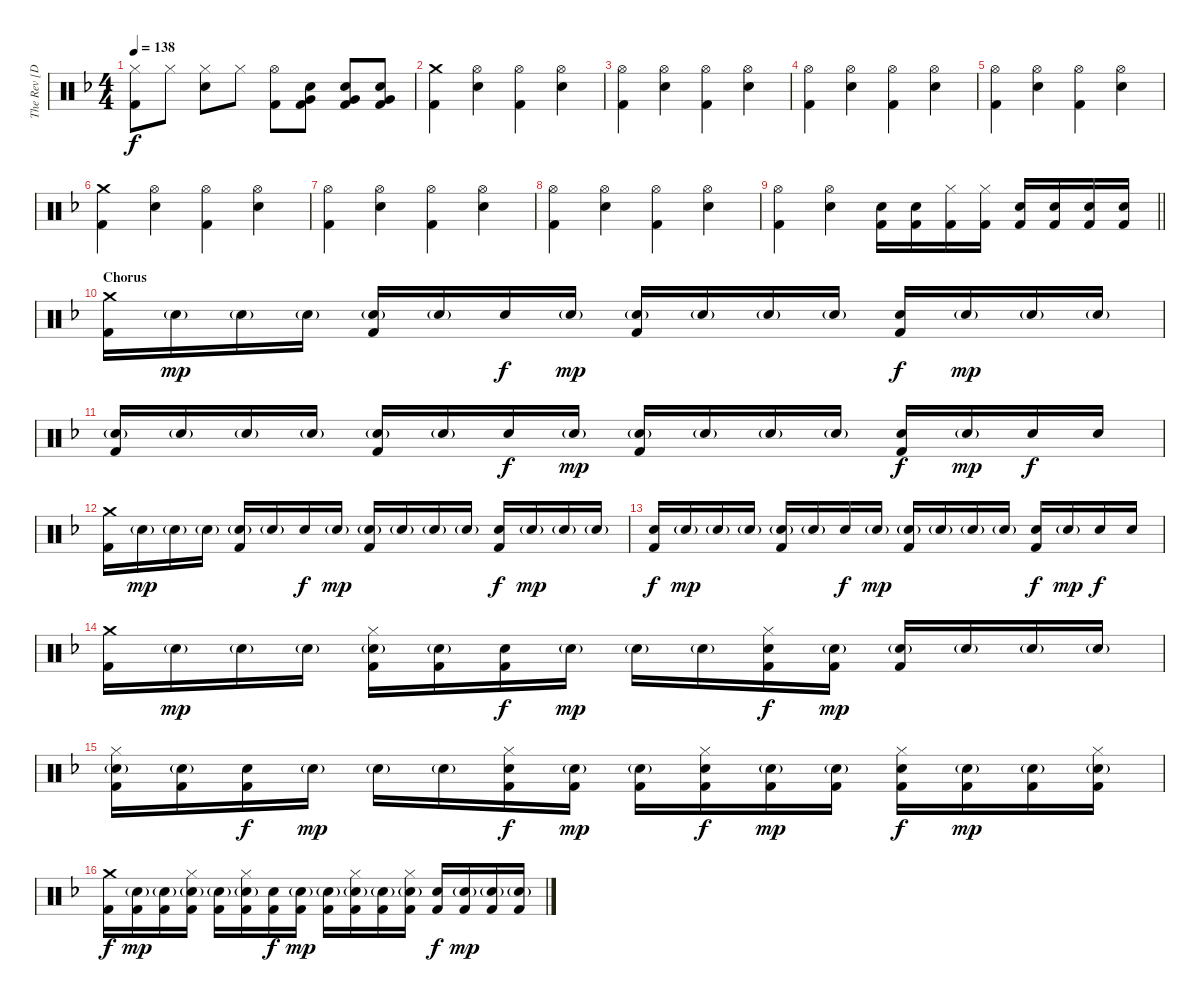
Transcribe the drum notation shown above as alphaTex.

\track ("The Rev [Drum]" "The Rev [D") {instrument percussion}
\staff {score}
\articulation defaults
\ts (4 4)
\tempo 138
\clef neutral
\ks f
("Hi-Hat (closed)" "Kick (hit) 2").8{dy f} "Hi-Hat (closed)".8 ("Hi-Hat (closed)" "Electric Snare (hit)").8 "Hi-Hat (closed)".8 ("Hi-Hat (open)" "Kick (hit) 2").8 ("Very Low Tom (hit)" "Electric Snare (hit)" "Kick (hit) 2").8 ("Very Low Tom (hit)" "Electric Snare (hit)" "Kick (hit) 2").8 ("Very Low Tom (hit)" "Electric Snare (hit)" "Kick (hit) 2").8 |
("Crash medium (hit)" "Kick (hit) 2").4 ("Hi-Hat (open)" "Electric Snare (hit)").4 ("Hi-Hat (open)" "Kick (hit) 2").4 ("Hi-Hat (open)" "Electric Snare (hit)").4 |
("Hi-Hat (open)" "Kick (hit) 2").4 ("Hi-Hat (open)" "Electric Snare (hit)").4 ("Hi-Hat (open)" "Kick (hit) 2").4 ("Hi-Hat (open)" "Electric Snare (hit)").4 |
("Hi-Hat (open)" "Kick (hit) 2").4 ("Hi-Hat (open)" "Electric Snare (hit)").4 ("Hi-Hat (open)" "Kick (hit) 2").4 ("Hi-Hat (open)" "Electric Snare (hit)").4 |
("Hi-Hat (open)" "Kick (hit) 2").4 ("Hi-Hat (open)" "Electric Snare (hit)").4 ("Hi-Hat (open)" "Kick (hit) 2").4 ("Hi-Hat (open)" "Electric Snare (hit)").4 |
("Crash medium (hit)" "Kick (hit) 2").4 ("Hi-Hat (open)" "Electric Snare (hit)").4 ("Hi-Hat (open)" "Kick (hit) 2").4 ("Hi-Hat (open)" "Electric Snare (hit)").4 |
("Hi-Hat (open)" "Kick (hit) 2").4 ("Hi-Hat (open)" "Electric Snare (hit)").4 ("Hi-Hat (open)" "Kick (hit) 2").4 ("Hi-Hat (open)" "Electric Snare (hit)").4 |
("Hi-Hat (open)" "Kick (hit) 2").4 ("Hi-Hat (open)" "Electric Snare (hit)").4 ("Hi-Hat (open)" "Kick (hit) 2").4 ("Hi-Hat (open)" "Electric Snare (hit)").4 |
\barLineRight lightlight
("Hi-Hat (open)" "Kick (hit) 2").4 ("Hi-Hat (open)" "Electric Snare (hit)").4 ("Electric Snare (hit)" "Kick (hit) 2").16 ("Electric Snare (hit)" "Kick (hit) 2").16 ("Hi-Hat (closed)" "Kick (hit) 2").16 ("Hi-Hat (closed)" "Kick (hit) 2").16 ("Electric Snare (hit)" "Kick (hit) 2").16 ("Electric Snare (hit)" "Kick (hit) 2").16 ("Electric Snare (hit)" "Kick (hit) 2").16 ("Electric Snare (hit)" "Kick (hit) 2").16 |
\section ("" "Chorus")
("Crash medium (hit)" "Kick (hit) 2").16 "Electric Snare (hit)"{g}.16{dy mp} "Electric Snare (hit)"{g}.16 "Electric Snare (hit)"{g}.16 ("Electric Snare (hit)"{g} "Kick (hit) 2").16 "Electric Snare (hit)"{g}.16 "Electric Snare (hit)".16{dy f} "Electric Snare (hit)"{g}.16{dy mp} ("Electric Snare (hit)"{g} "Kick (hit) 2").16 "Electric Snare (hit)"{g}.16 "Electric Snare (hit)"{g}.16 "Electric Snare (hit)"{g}.16 ("Electric Snare (hit)" "Kick (hit) 2").16{dy f} "Electric Snare (hit)"{g}.16{dy mp} "Electric Snare (hit)"{g}.16 "Electric Snare (hit)"{g}.16 |
("Electric Snare (hit)"{g} "Kick (hit) 2").16 "Electric Snare (hit)"{g}.16 "Electric Snare (hit)"{g}.16 "Electric Snare (hit)"{g}.16 ("Electric Snare (hit)"{g} "Kick (hit) 2").16 "Electric Snare (hit)"{g}.16 "Electric Snare (hit)".16{dy f} "Electric Snare (hit)"{g}.16{dy mp} ("Electric Snare (hit)"{g} "Kick (hit) 2").16 "Electric Snare (hit)"{g}.16 "Electric Snare (hit)"{g}.16 "Electric Snare (hit)"{g}.16 ("Electric Snare (hit)" "Kick (hit) 2").16{dy f} "Electric Snare (hit)"{g}.16{dy mp} "Electric Snare (hit)".16{dy f} "Electric Snare (hit)".16 |
("Crash medium (hit)" "Kick (hit) 2").16 "Electric Snare (hit)"{g}.16{dy mp} "Electric Snare (hit)"{g}.16 "Electric Snare (hit)"{g}.16 ("Electric Snare (hit)"{g} "Kick (hit) 2").16 "Electric Snare (hit)"{g}.16 "Electric Snare (hit)".16{dy f} "Electric Snare (hit)"{g}.16{dy mp} ("Electric Snare (hit)"{g} "Kick (hit) 2").16 "Electric Snare (hit)"{g}.16 "Electric Snare (hit)"{g}.16 "Electric Snare (hit)"{g}.16 ("Electric Snare (hit)" "Kick (hit) 2").16{dy f} "Electric Snare (hit)"{g}.16{dy mp} "Electric Snare (hit)"{g}.16 "Electric Snare (hit)"{g}.16 |
("Electric Snare (hit)" "Kick (hit) 2").16{dy f} "Electric Snare (hit)"{g}.16{dy mp} "Electric Snare (hit)"{g}.16 "Electric Snare (hit)"{g}.16 ("Electric Snare (hit)"{g} "Kick (hit) 2").16 "Electric Snare (hit)"{g}.16 "Electric Snare (hit)".16{dy f} "Electric Snare (hit)"{g}.16{dy mp} ("Electric Snare (hit)"{g} "Kick (hit) 2").16 "Electric Snare (hit)"{g}.16 "Electric Snare (hit)"{g}.16 "Electric Snare (hit)"{g}.16 ("Electric Snare (hit)" "Kick (hit) 2").16{dy f} "Electric Snare (hit)"{g}.16{dy mp} "Electric Snare (hit)".16{dy f} "Electric Snare (hit)".16 |
("Crash medium (hit)" "Kick (hit) 2").16 "Electric Snare (hit)"{g}.16{dy mp} "Electric Snare (hit)"{g}.16 "Electric Snare (hit)"{g}.16 ("Hi-Hat (closed)" "Electric Snare (hit)"{g} "Kick (hit) 2").16 ("Electric Snare (hit)"{g} "Kick (hit) 2").16 ("Electric Snare (hit)" "Kick (hit) 2").16{dy f} "Electric Snare (hit)"{g}.16{dy mp} "Electric Snare (hit)"{g}.16 "Electric Snare (hit)"{g}.16 ("Hi-Hat (closed)" "Electric Snare (hit)" "Kick (hit) 2").16{dy f} ("Electric Snare (hit)"{g} "Kick (hit) 2").16{dy mp} ("Electric Snare (hit)"{g} "Kick (hit) 2").16 "Electric Snare (hit)"{g}.16 "Electric Snare (hit)"{g}.16 "Electric Snare (hit)"{g}.16 |
("Hi-Hat (closed)" "Electric Snare (hit)"{g} "Kick (hit) 2").16 ("Electric Snare (hit)"{g} "Kick (hit) 2").16 ("Electric Snare (hit)" "Kick (hit) 2").16{dy f} "Electric Snare (hit)"{g}.16{dy mp} "Electric Snare (hit)"{g}.16 "Electric Snare (hit)"{g}.16 ("Hi-Hat (closed)" "Electric Snare (hit)" "Kick (hit) 2").16{dy f} ("Electric Snare (hit)"{g} "Kick (hit) 2").16{dy mp} ("Electric Snare (hit)"{g} "Kick (hit) 2").16 ("Hi-Hat (closed)" "Electric Snare (hit)" "Kick (hit) 2").16{dy f} ("Electric Snare (hit)"{g} "Kick (hit) 2").16{dy mp} ("Electric Snare (hit)"{g} "Kick (hit) 2").16 ("Hi-Hat (closed)" "Electric Snare (hit)" "Kick (hit) 2").16{dy f} ("Electric Snare (hit)"{g} "Kick (hit) 2").16{dy mp} ("Electric Snare (hit)"{g} "Kick (hit) 2").16 ("Hi-Hat (closed)" "Electric Snare (hit)"{g} "Kick (hit) 2").16 |
("Crash medium (hit)" "Kick (hit) 2").16{dy f} ("Electric Snare (hit)"{g} "Kick (hit) 2").16{dy mp} ("Electric Snare (hit)"{g} "Kick (hit) 2").16 ("Hi-Hat (closed)" "Electric Snare (hit)"{g} "Kick (hit) 2").16 ("Electric Snare (hit)"{g} "Kick (hit) 2").16 ("Hi-Hat (closed)" "Electric Snare (hit)"{g} "Kick (hit) 2").16 ("Electric Snare (hit)" "Kick (hit) 2").16{dy f} ("Electric Snare (hit)"{g} "Kick (hit) 2").16{dy mp} ("Electric Snare (hit)"{g} "Kick (hit) 2").16 ("Hi-Hat (closed)" "Electric Snare (hit)"{g} "Kick (hit) 2").16 ("Electric Snare (hit)"{g} "Kick (hit) 2").16 ("Hi-Hat (closed)" "Electric Snare (hit)"{g} "Kick (hit) 2").16 ("Electric Snare (hit)" "Kick (hit) 2").16{dy f} ("Electric Snare (hit)"{g} "Kick (hit) 2").16{dy mp} ("Electric Snare (hit)"{g} "Kick (hit) 2").16 ("Electric Snare (hit)"{g} "Kick (hit) 2").16
